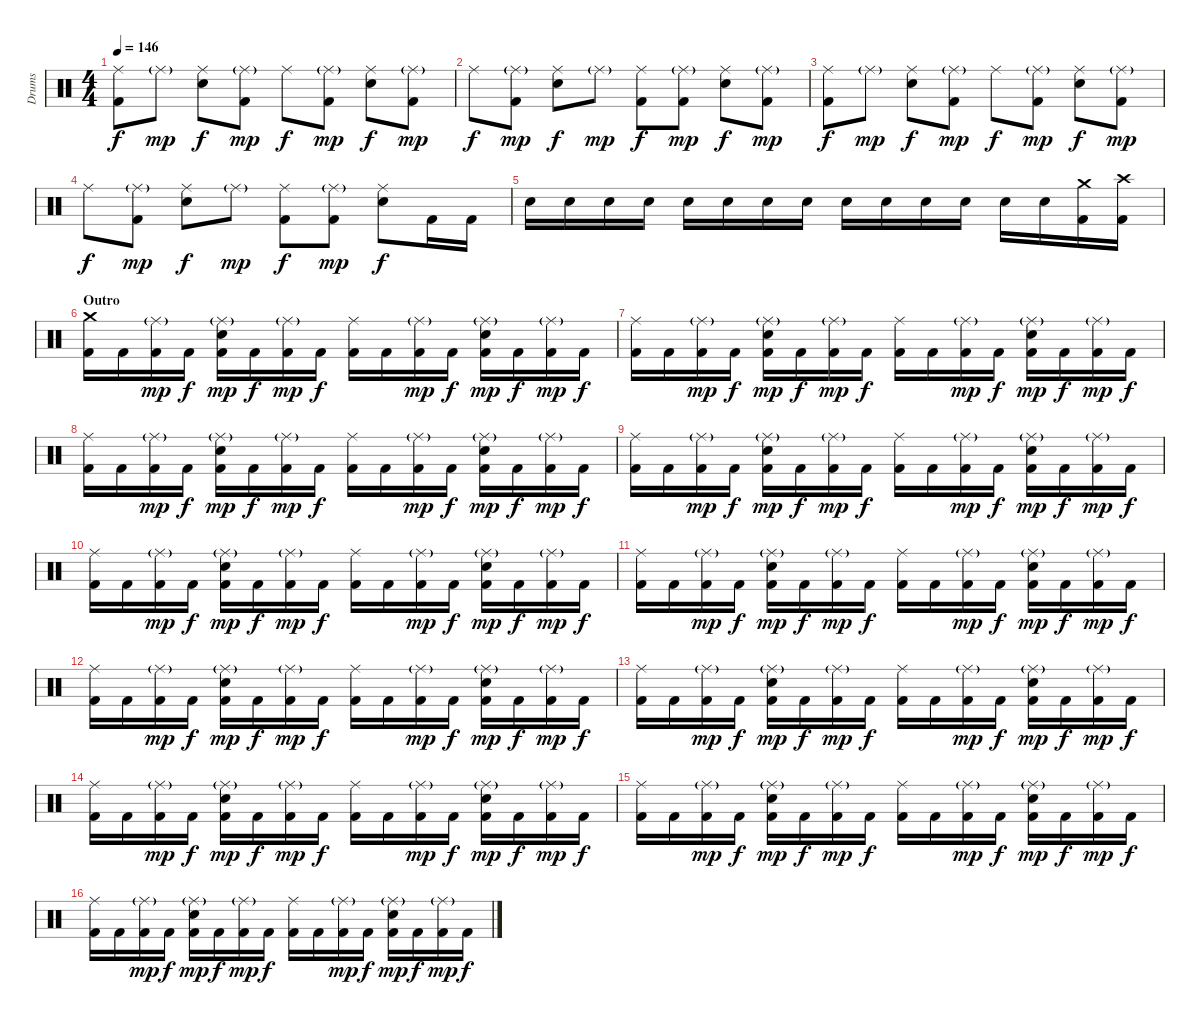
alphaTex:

\track ("Drums" "Drums") {instrument percussion}
\staff {score}
\articulation defaults
\ts (4 4)
\tempo 146
\clef neutral
\ks c
("Ride (middle)" "Kick (hit) 2").8{dy f} "Ride (middle)"{g}.8{dy mp} ("Ride (middle)" "Snare (hit) 2").8{dy f} ("Ride (middle)"{g} "Kick (hit) 2").8{dy mp} "Ride (middle)".8{dy f} ("Ride (middle)"{g} "Kick (hit) 2").8{dy mp} ("Ride (middle)" "Snare (hit) 2").8{dy f} ("Ride (middle)"{g} "Kick (hit) 2").8{dy mp} |
"Ride (middle)".8{dy f} ("Ride (middle)"{g} "Kick (hit) 2").8{dy mp} ("Ride (middle)" "Snare (hit) 2").8{dy f} "Ride (middle)"{g}.8{dy mp} ("Ride (middle)" "Kick (hit) 2").8{dy f} ("Ride (middle)"{g} "Kick (hit) 2").8{dy mp} ("Ride (middle)" "Snare (hit) 2").8{dy f} ("Ride (middle)"{g} "Kick (hit) 2").8{dy mp} |
("Ride (middle)" "Kick (hit) 2").8{dy f} "Ride (middle)"{g}.8{dy mp} ("Ride (middle)" "Snare (hit) 2").8{dy f} ("Ride (middle)"{g} "Kick (hit) 2").8{dy mp} "Ride (middle)".8{dy f} ("Ride (middle)"{g} "Kick (hit) 2").8{dy mp} ("Ride (middle)" "Snare (hit) 2").8{dy f} ("Ride (middle)"{g} "Kick (hit) 2").8{dy mp} |
"Ride (middle)".8{dy f} ("Ride (middle)"{g} "Kick (hit) 2").8{dy mp} ("Ride (middle)" "Snare (hit) 2").8{dy f} "Ride (middle)"{g}.8{dy mp} ("Ride (middle)" "Kick (hit) 2").8{dy f} ("Ride (middle)"{g} "Kick (hit) 2").8{dy mp} ("Ride (middle)" "Snare (hit) 2").8{dy f} "Kick (hit) 2".16 "Kick (hit) 2".16 |
"Snare (hit) 2".16 "Snare (hit) 2".16 "Snare (hit) 2".16 "Snare (hit) 2".16 "Snare (hit) 2".16 "Snare (hit) 2".16 "Snare (hit) 2".16 "Snare (hit) 2".16 "Snare (hit) 2".16 "Snare (hit) 2".16 "Snare (hit) 2".16 "Snare (hit) 2".16 "Snare (hit) 2".16 "Snare (hit) 2".16 ("Crash medium (hit)" "Kick (hit) 2").16 ("Crash high (hit)" "Kick (hit) 2").16 |
\section ("" "Outro")
("Crash medium (hit)" "Kick (hit) 2").16 "Kick (hit) 2".16 ("Ride (middle)"{g} "Kick (hit) 2").16{dy mp} "Kick (hit) 2".16{dy f} ("Ride (middle)"{g} "Snare (hit) 2" "Kick (hit) 2").16{dy mp} "Kick (hit) 2".16{dy f} ("Ride (middle)"{g} "Kick (hit) 2").16{dy mp} "Kick (hit) 2".16{dy f} ("Ride (middle)" "Kick (hit) 2").16 "Kick (hit) 2".16 ("Ride (middle)"{g} "Kick (hit) 2").16{dy mp} "Kick (hit) 2".16{dy f} ("Ride (middle)"{g} "Snare (hit) 2" "Kick (hit) 2").16{dy mp} "Kick (hit) 2".16{dy f} ("Ride (middle)"{g} "Kick (hit) 2").16{dy mp} "Kick (hit) 2".16{dy f} |
("Ride (middle)" "Kick (hit) 2").16 "Kick (hit) 2".16 ("Ride (middle)"{g} "Kick (hit) 2").16{dy mp} "Kick (hit) 2".16{dy f} ("Ride (middle)"{g} "Snare (hit) 2" "Kick (hit) 2").16{dy mp} "Kick (hit) 2".16{dy f} ("Ride (middle)"{g} "Kick (hit) 2").16{dy mp} "Kick (hit) 2".16{dy f} ("Ride (middle)" "Kick (hit) 2").16 "Kick (hit) 2".16 ("Ride (middle)"{g} "Kick (hit) 2").16{dy mp} "Kick (hit) 2".16{dy f} ("Ride (middle)"{g} "Snare (hit) 2" "Kick (hit) 2").16{dy mp} "Kick (hit) 2".16{dy f} ("Ride (middle)"{g} "Kick (hit) 2").16{dy mp} "Kick (hit) 2".16{dy f} |
("Ride (middle)" "Kick (hit) 2").16 "Kick (hit) 2".16 ("Ride (middle)"{g} "Kick (hit) 2").16{dy mp} "Kick (hit) 2".16{dy f} ("Ride (middle)"{g} "Snare (hit) 2" "Kick (hit) 2").16{dy mp} "Kick (hit) 2".16{dy f} ("Ride (middle)"{g} "Kick (hit) 2").16{dy mp} "Kick (hit) 2".16{dy f} ("Ride (middle)" "Kick (hit) 2").16 "Kick (hit) 2".16 ("Ride (middle)"{g} "Kick (hit) 2").16{dy mp} "Kick (hit) 2".16{dy f} ("Ride (middle)"{g} "Snare (hit) 2" "Kick (hit) 2").16{dy mp} "Kick (hit) 2".16{dy f} ("Ride (middle)"{g} "Kick (hit) 2").16{dy mp} "Kick (hit) 2".16{dy f} |
("Ride (middle)" "Kick (hit) 2").16 "Kick (hit) 2".16 ("Ride (middle)"{g} "Kick (hit) 2").16{dy mp} "Kick (hit) 2".16{dy f} ("Ride (middle)"{g} "Snare (hit) 2" "Kick (hit) 2").16{dy mp} "Kick (hit) 2".16{dy f} ("Ride (middle)"{g} "Kick (hit) 2").16{dy mp} "Kick (hit) 2".16{dy f} ("Ride (middle)" "Kick (hit) 2").16 "Kick (hit) 2".16 ("Ride (middle)"{g} "Kick (hit) 2").16{dy mp} "Kick (hit) 2".16{dy f} ("Ride (middle)"{g} "Snare (hit) 2" "Kick (hit) 2").16{dy mp} "Kick (hit) 2".16{dy f} ("Ride (middle)"{g} "Kick (hit) 2").16{dy mp} "Kick (hit) 2".16{dy f} |
("Ride (middle)" "Kick (hit) 2").16 "Kick (hit) 2".16 ("Ride (middle)"{g} "Kick (hit) 2").16{dy mp} "Kick (hit) 2".16{dy f} ("Ride (middle)"{g} "Snare (hit) 2" "Kick (hit) 2").16{dy mp} "Kick (hit) 2".16{dy f} ("Ride (middle)"{g} "Kick (hit) 2").16{dy mp} "Kick (hit) 2".16{dy f} ("Ride (middle)" "Kick (hit) 2").16 "Kick (hit) 2".16 ("Ride (middle)"{g} "Kick (hit) 2").16{dy mp} "Kick (hit) 2".16{dy f} ("Ride (middle)"{g} "Snare (hit) 2" "Kick (hit) 2").16{dy mp} "Kick (hit) 2".16{dy f} ("Ride (middle)"{g} "Kick (hit) 2").16{dy mp} "Kick (hit) 2".16{dy f} |
("Ride (middle)" "Kick (hit) 2").16 "Kick (hit) 2".16 ("Ride (middle)"{g} "Kick (hit) 2").16{dy mp} "Kick (hit) 2".16{dy f} ("Ride (middle)"{g} "Snare (hit) 2" "Kick (hit) 2").16{dy mp} "Kick (hit) 2".16{dy f} ("Ride (middle)"{g} "Kick (hit) 2").16{dy mp} "Kick (hit) 2".16{dy f} ("Ride (middle)" "Kick (hit) 2").16 "Kick (hit) 2".16 ("Ride (middle)"{g} "Kick (hit) 2").16{dy mp} "Kick (hit) 2".16{dy f} ("Ride (middle)"{g} "Snare (hit) 2" "Kick (hit) 2").16{dy mp} "Kick (hit) 2".16{dy f} ("Ride (middle)"{g} "Kick (hit) 2").16{dy mp} "Kick (hit) 2".16{dy f} |
("Ride (middle)" "Kick (hit) 2").16 "Kick (hit) 2".16 ("Ride (middle)"{g} "Kick (hit) 2").16{dy mp} "Kick (hit) 2".16{dy f} ("Ride (middle)"{g} "Snare (hit) 2" "Kick (hit) 2").16{dy mp} "Kick (hit) 2".16{dy f} ("Ride (middle)"{g} "Kick (hit) 2").16{dy mp} "Kick (hit) 2".16{dy f} ("Ride (middle)" "Kick (hit) 2").16 "Kick (hit) 2".16 ("Ride (middle)"{g} "Kick (hit) 2").16{dy mp} "Kick (hit) 2".16{dy f} ("Ride (middle)"{g} "Snare (hit) 2" "Kick (hit) 2").16{dy mp} "Kick (hit) 2".16{dy f} ("Ride (middle)"{g} "Kick (hit) 2").16{dy mp} "Kick (hit) 2".16{dy f} |
("Ride (middle)" "Kick (hit) 2").16 "Kick (hit) 2".16 ("Ride (middle)"{g} "Kick (hit) 2").16{dy mp} "Kick (hit) 2".16{dy f} ("Ride (middle)"{g} "Snare (hit) 2" "Kick (hit) 2").16{dy mp} "Kick (hit) 2".16{dy f} ("Ride (middle)"{g} "Kick (hit) 2").16{dy mp} "Kick (hit) 2".16{dy f} ("Ride (middle)" "Kick (hit) 2").16 "Kick (hit) 2".16 ("Ride (middle)"{g} "Kick (hit) 2").16{dy mp} "Kick (hit) 2".16{dy f} ("Ride (middle)"{g} "Snare (hit) 2" "Kick (hit) 2").16{dy mp} "Kick (hit) 2".16{dy f} ("Ride (middle)"{g} "Kick (hit) 2").16{dy mp} "Kick (hit) 2".16{dy f} |
("Ride (middle)" "Kick (hit) 2").16 "Kick (hit) 2".16 ("Ride (middle)"{g} "Kick (hit) 2").16{dy mp} "Kick (hit) 2".16{dy f} ("Ride (middle)"{g} "Snare (hit) 2" "Kick (hit) 2").16{dy mp} "Kick (hit) 2".16{dy f} ("Ride (middle)"{g} "Kick (hit) 2").16{dy mp} "Kick (hit) 2".16{dy f} ("Ride (middle)" "Kick (hit) 2").16 "Kick (hit) 2".16 ("Ride (middle)"{g} "Kick (hit) 2").16{dy mp} "Kick (hit) 2".16{dy f} ("Ride (middle)"{g} "Snare (hit) 2" "Kick (hit) 2").16{dy mp} "Kick (hit) 2".16{dy f} ("Ride (middle)"{g} "Kick (hit) 2").16{dy mp} "Kick (hit) 2".16{dy f} |
("Ride (middle)" "Kick (hit) 2").16 "Kick (hit) 2".16 ("Ride (middle)"{g} "Kick (hit) 2").16{dy mp} "Kick (hit) 2".16{dy f} ("Ride (middle)"{g} "Snare (hit) 2" "Kick (hit) 2").16{dy mp} "Kick (hit) 2".16{dy f} ("Ride (middle)"{g} "Kick (hit) 2").16{dy mp} "Kick (hit) 2".16{dy f} ("Ride (middle)" "Kick (hit) 2").16 "Kick (hit) 2".16 ("Ride (middle)"{g} "Kick (hit) 2").16{dy mp} "Kick (hit) 2".16{dy f} ("Ride (middle)"{g} "Snare (hit) 2" "Kick (hit) 2").16{dy mp} "Kick (hit) 2".16{dy f} ("Ride (middle)"{g} "Kick (hit) 2").16{dy mp} "Kick (hit) 2".16{dy f} |
("Ride (middle)" "Kick (hit) 2").16 "Kick (hit) 2".16 ("Ride (middle)"{g} "Kick (hit) 2").16{dy mp} "Kick (hit) 2".16{dy f} ("Ride (middle)"{g} "Snare (hit) 2" "Kick (hit) 2").16{dy mp} "Kick (hit) 2".16{dy f} ("Ride (middle)"{g} "Kick (hit) 2").16{dy mp} "Kick (hit) 2".16{dy f} ("Ride (middle)" "Kick (hit) 2").16 "Kick (hit) 2".16 ("Ride (middle)"{g} "Kick (hit) 2").16{dy mp} "Kick (hit) 2".16{dy f} ("Ride (middle)"{g} "Snare (hit) 2" "Kick (hit) 2").16{dy mp} "Kick (hit) 2".16{dy f} ("Ride (middle)"{g} "Kick (hit) 2").16{dy mp} "Kick (hit) 2".16{dy f}
